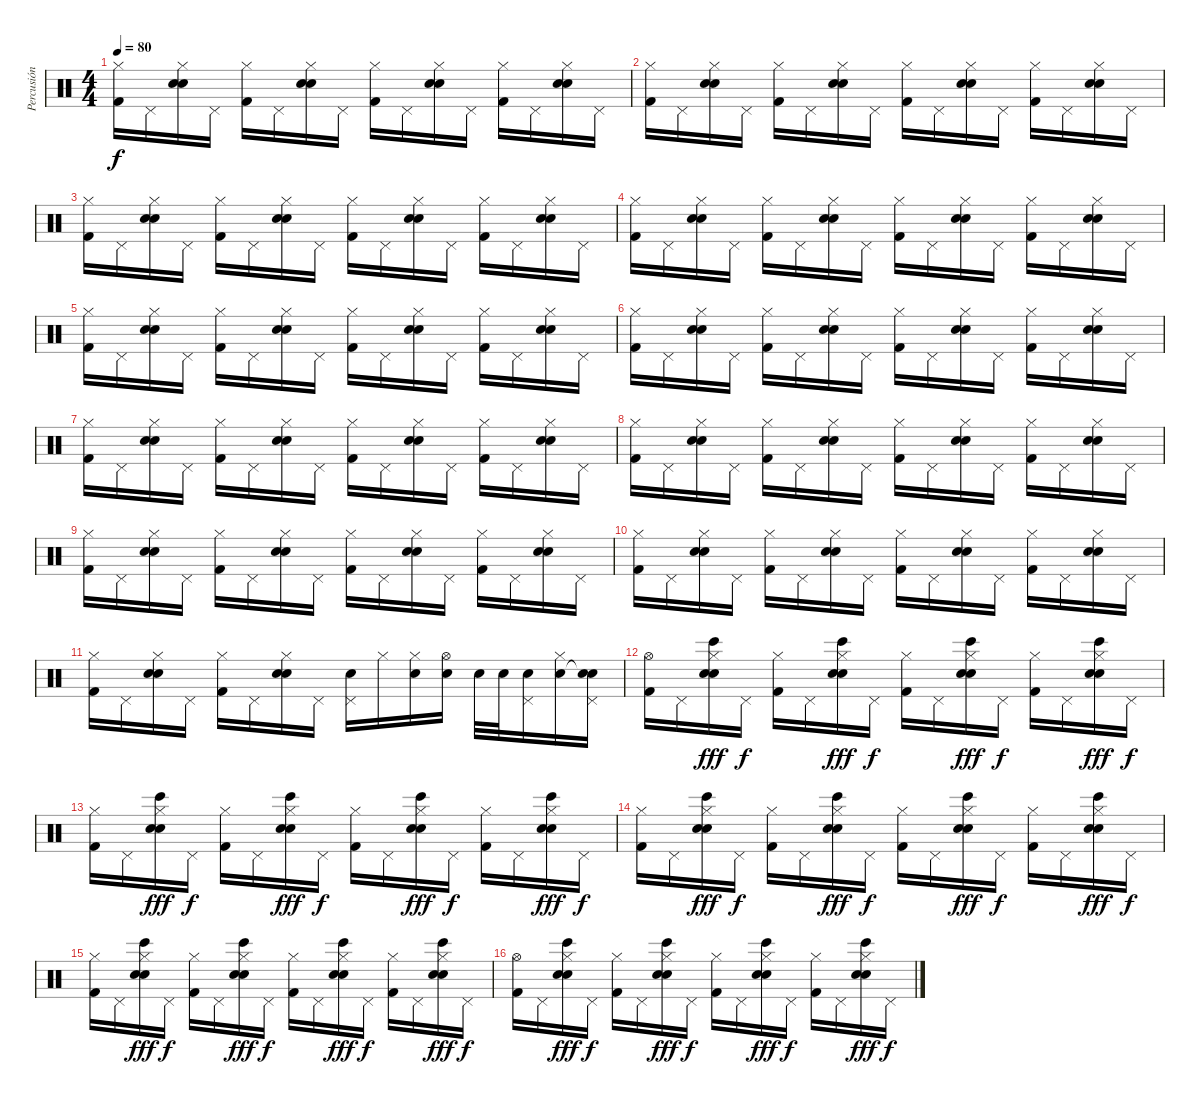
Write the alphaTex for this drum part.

\track ("Percusión" "Percusión") {instrument percussion}
\staff {score}
\articulation defaults
\ts (4 4)
\tempo 80
\clef neutral
\ks c
("Hi-Hat (closed)" "Kick (hit) 2").16{dy f} "Pedal Hi-Hat (hit)".16 ("Hi-Hat (closed)" "Hand Clap (hit)" "Electric Snare (hit)").16 "Pedal Hi-Hat (hit)".16 ("Hi-Hat (closed)" "Kick (hit) 2").16 "Pedal Hi-Hat (hit)".16 ("Hi-Hat (closed)" "Hand Clap (hit)" "Electric Snare (hit)").16 "Pedal Hi-Hat (hit)".16 ("Hi-Hat (closed)" "Kick (hit) 2").16 "Pedal Hi-Hat (hit)".16 ("Hi-Hat (closed)" "Hand Clap (hit)" "Electric Snare (hit)").16 "Pedal Hi-Hat (hit)".16 ("Hi-Hat (closed)" "Kick (hit) 2").16 "Pedal Hi-Hat (hit)".16 ("Hi-Hat (closed)" "Hand Clap (hit)" "Electric Snare (hit)").16 "Pedal Hi-Hat (hit)".16 |
("Hi-Hat (closed)" "Kick (hit) 2").16 "Pedal Hi-Hat (hit)".16 ("Hi-Hat (closed)" "Hand Clap (hit)" "Electric Snare (hit)").16 "Pedal Hi-Hat (hit)".16 ("Hi-Hat (closed)" "Kick (hit) 2").16 "Pedal Hi-Hat (hit)".16 ("Hi-Hat (closed)" "Hand Clap (hit)" "Electric Snare (hit)").16 "Pedal Hi-Hat (hit)".16 ("Hi-Hat (closed)" "Kick (hit) 2").16 "Pedal Hi-Hat (hit)".16 ("Hi-Hat (closed)" "Hand Clap (hit)" "Electric Snare (hit)").16 "Pedal Hi-Hat (hit)".16 ("Hi-Hat (closed)" "Kick (hit) 2").16 "Pedal Hi-Hat (hit)".16 ("Hi-Hat (closed)" "Hand Clap (hit)" "Electric Snare (hit)").16 "Pedal Hi-Hat (hit)".16 |
("Hi-Hat (closed)" "Kick (hit) 2").16 "Pedal Hi-Hat (hit)".16 ("Hi-Hat (closed)" "Hand Clap (hit)" "Electric Snare (hit)").16 "Pedal Hi-Hat (hit)".16 ("Hi-Hat (closed)" "Kick (hit) 2").16 "Pedal Hi-Hat (hit)".16 ("Hi-Hat (closed)" "Hand Clap (hit)" "Electric Snare (hit)").16 "Pedal Hi-Hat (hit)".16 ("Hi-Hat (closed)" "Kick (hit) 2").16 "Pedal Hi-Hat (hit)".16 ("Hi-Hat (closed)" "Hand Clap (hit)" "Electric Snare (hit)").16 "Pedal Hi-Hat (hit)".16 ("Hi-Hat (closed)" "Kick (hit) 2").16 "Pedal Hi-Hat (hit)".16 ("Hi-Hat (closed)" "Hand Clap (hit)" "Electric Snare (hit)").16 "Pedal Hi-Hat (hit)".16 |
("Hi-Hat (closed)" "Kick (hit) 2").16 "Pedal Hi-Hat (hit)".16 ("Hi-Hat (closed)" "Hand Clap (hit)" "Electric Snare (hit)").16 "Pedal Hi-Hat (hit)".16 ("Hi-Hat (closed)" "Kick (hit) 2").16 "Pedal Hi-Hat (hit)".16 ("Hi-Hat (closed)" "Hand Clap (hit)" "Electric Snare (hit)").16 "Pedal Hi-Hat (hit)".16 ("Hi-Hat (closed)" "Kick (hit) 2").16 "Pedal Hi-Hat (hit)".16 ("Hi-Hat (closed)" "Hand Clap (hit)" "Electric Snare (hit)").16 "Pedal Hi-Hat (hit)".16 ("Hi-Hat (closed)" "Kick (hit) 2").16 "Pedal Hi-Hat (hit)".16 ("Hi-Hat (closed)" "Hand Clap (hit)" "Electric Snare (hit)").16 "Pedal Hi-Hat (hit)".16 |
("Hi-Hat (closed)" "Kick (hit) 2").16 "Pedal Hi-Hat (hit)".16 ("Hi-Hat (closed)" "Hand Clap (hit)" "Electric Snare (hit)").16 "Pedal Hi-Hat (hit)".16 ("Hi-Hat (closed)" "Kick (hit) 2").16 "Pedal Hi-Hat (hit)".16 ("Hi-Hat (closed)" "Hand Clap (hit)" "Electric Snare (hit)").16 "Pedal Hi-Hat (hit)".16 ("Hi-Hat (closed)" "Kick (hit) 2").16 "Pedal Hi-Hat (hit)".16 ("Hi-Hat (closed)" "Hand Clap (hit)" "Electric Snare (hit)").16 "Pedal Hi-Hat (hit)".16 ("Hi-Hat (closed)" "Kick (hit) 2").16 "Pedal Hi-Hat (hit)".16 ("Hi-Hat (closed)" "Hand Clap (hit)" "Electric Snare (hit)").16 "Pedal Hi-Hat (hit)".16 |
("Hi-Hat (closed)" "Kick (hit) 2").16 "Pedal Hi-Hat (hit)".16 ("Hi-Hat (closed)" "Hand Clap (hit)" "Electric Snare (hit)").16 "Pedal Hi-Hat (hit)".16 ("Hi-Hat (closed)" "Kick (hit) 2").16 "Pedal Hi-Hat (hit)".16 ("Hi-Hat (closed)" "Hand Clap (hit)" "Electric Snare (hit)").16 "Pedal Hi-Hat (hit)".16 ("Hi-Hat (closed)" "Kick (hit) 2").16 "Pedal Hi-Hat (hit)".16 ("Hi-Hat (closed)" "Hand Clap (hit)" "Electric Snare (hit)").16 "Pedal Hi-Hat (hit)".16 ("Hi-Hat (closed)" "Kick (hit) 2").16 "Pedal Hi-Hat (hit)".16 ("Hi-Hat (closed)" "Hand Clap (hit)" "Electric Snare (hit)").16 "Pedal Hi-Hat (hit)".16 |
("Hi-Hat (closed)" "Kick (hit) 2").16 "Pedal Hi-Hat (hit)".16 ("Hi-Hat (closed)" "Hand Clap (hit)" "Electric Snare (hit)").16 "Pedal Hi-Hat (hit)".16 ("Hi-Hat (closed)" "Kick (hit) 2").16 "Pedal Hi-Hat (hit)".16 ("Hi-Hat (closed)" "Hand Clap (hit)" "Electric Snare (hit)").16 "Pedal Hi-Hat (hit)".16 ("Hi-Hat (closed)" "Kick (hit) 2").16 "Pedal Hi-Hat (hit)".16 ("Hi-Hat (closed)" "Hand Clap (hit)" "Electric Snare (hit)").16 "Pedal Hi-Hat (hit)".16 ("Hi-Hat (closed)" "Kick (hit) 2").16 "Pedal Hi-Hat (hit)".16 ("Hi-Hat (closed)" "Hand Clap (hit)" "Electric Snare (hit)").16 "Pedal Hi-Hat (hit)".16 |
("Hi-Hat (closed)" "Kick (hit) 2").16 "Pedal Hi-Hat (hit)".16 ("Hi-Hat (closed)" "Hand Clap (hit)" "Electric Snare (hit)").16 "Pedal Hi-Hat (hit)".16 ("Hi-Hat (closed)" "Kick (hit) 2").16 "Pedal Hi-Hat (hit)".16 ("Hi-Hat (closed)" "Hand Clap (hit)" "Electric Snare (hit)").16 "Pedal Hi-Hat (hit)".16 ("Hi-Hat (closed)" "Kick (hit) 2").16 "Pedal Hi-Hat (hit)".16 ("Hi-Hat (closed)" "Hand Clap (hit)" "Electric Snare (hit)").16 "Pedal Hi-Hat (hit)".16 ("Hi-Hat (closed)" "Kick (hit) 2").16 "Pedal Hi-Hat (hit)".16 ("Hi-Hat (closed)" "Hand Clap (hit)" "Electric Snare (hit)").16 "Pedal Hi-Hat (hit)".16 |
("Hi-Hat (closed)" "Kick (hit) 2").16 "Pedal Hi-Hat (hit)".16 ("Hi-Hat (closed)" "Hand Clap (hit)" "Electric Snare (hit)").16 "Pedal Hi-Hat (hit)".16 ("Hi-Hat (closed)" "Kick (hit) 2").16 "Pedal Hi-Hat (hit)".16 ("Hi-Hat (closed)" "Hand Clap (hit)" "Electric Snare (hit)").16 "Pedal Hi-Hat (hit)".16 ("Hi-Hat (closed)" "Kick (hit) 2").16 "Pedal Hi-Hat (hit)".16 ("Hi-Hat (closed)" "Hand Clap (hit)" "Electric Snare (hit)").16 "Pedal Hi-Hat (hit)".16 ("Hi-Hat (closed)" "Kick (hit) 2").16 "Pedal Hi-Hat (hit)".16 ("Hi-Hat (closed)" "Hand Clap (hit)" "Electric Snare (hit)").16 "Pedal Hi-Hat (hit)".16 |
("Hi-Hat (closed)" "Kick (hit) 2").16 "Pedal Hi-Hat (hit)".16 ("Hi-Hat (closed)" "Hand Clap (hit)" "Electric Snare (hit)").16 "Pedal Hi-Hat (hit)".16 ("Hi-Hat (closed)" "Kick (hit) 2").16 "Pedal Hi-Hat (hit)".16 ("Hi-Hat (closed)" "Hand Clap (hit)" "Electric Snare (hit)").16 "Pedal Hi-Hat (hit)".16 ("Hi-Hat (closed)" "Kick (hit) 2").16 "Pedal Hi-Hat (hit)".16 ("Hi-Hat (closed)" "Hand Clap (hit)" "Electric Snare (hit)").16 "Pedal Hi-Hat (hit)".16 ("Hi-Hat (closed)" "Kick (hit) 2").16 "Pedal Hi-Hat (hit)".16 ("Hi-Hat (closed)" "Hand Clap (hit)" "Electric Snare (hit)").16 "Pedal Hi-Hat (hit)".16 |
("Hi-Hat (closed)" "Kick (hit) 2").16 "Pedal Hi-Hat (hit)".16 ("Hi-Hat (closed)" "Hand Clap (hit)" "Electric Snare (hit)").16 "Pedal Hi-Hat (hit)".16 ("Hi-Hat (closed)" "Kick (hit) 2").16 "Pedal Hi-Hat (hit)".16 ("Hi-Hat (closed)" "Hand Clap (hit)" "Electric Snare (hit)").16 "Pedal Hi-Hat (hit)".16 ("Pedal Hi-Hat (hit)" "Electric Snare (hit)").16 "Hi-Hat (closed)".16 ("Hi-Hat (closed)" "Electric Snare (hit)").16 ("Hi-Hat (open)" "Electric Snare (hit)").16 "Electric Snare (hit)".32 "Electric Snare (hit)".32 ("Pedal Hi-Hat (hit)" "Electric Snare (hit)").16 ("Hi-Hat (closed)" "Electric Snare (hit)").16 ("Pedal Hi-Hat (hit)" "Snare (hit)"{t} "Electric Snare (hit)").16 |
("Hi-Hat (open)" "Kick (hit) 2").16 "Pedal Hi-Hat (hit)".16 ("Hi-Hat (closed)" "Bongo High (hit)" "Hand Clap (hit)" "Electric Snare (hit)").16{dy fff} "Pedal Hi-Hat (hit)".16{dy f} ("Hi-Hat (closed)" "Kick (hit) 2").16 "Pedal Hi-Hat (hit)".16 ("Hi-Hat (closed)" "Bongo High (hit)" "Hand Clap (hit)" "Electric Snare (hit)").16{dy fff} "Pedal Hi-Hat (hit)".16{dy f} ("Hi-Hat (closed)" "Kick (hit) 2").16 "Pedal Hi-Hat (hit)".16 ("Hi-Hat (closed)" "Bongo High (hit)" "Hand Clap (hit)" "Electric Snare (hit)").16{dy fff} "Pedal Hi-Hat (hit)".16{dy f} ("Hi-Hat (closed)" "Kick (hit) 2").16 "Pedal Hi-Hat (hit)".16 ("Hi-Hat (closed)" "Bongo High (hit)" "Hand Clap (hit)" "Electric Snare (hit)").16{dy fff} "Pedal Hi-Hat (hit)".16{dy f} |
("Hi-Hat (closed)" "Kick (hit) 2").16 "Pedal Hi-Hat (hit)".16 ("Hi-Hat (closed)" "Bongo High (hit)" "Hand Clap (hit)" "Electric Snare (hit)").16{dy fff} "Pedal Hi-Hat (hit)".16{dy f} ("Hi-Hat (closed)" "Kick (hit) 2").16 "Pedal Hi-Hat (hit)".16 ("Hi-Hat (closed)" "Bongo High (hit)" "Hand Clap (hit)" "Electric Snare (hit)").16{dy fff} "Pedal Hi-Hat (hit)".16{dy f} ("Hi-Hat (closed)" "Kick (hit) 2").16 "Pedal Hi-Hat (hit)".16 ("Hi-Hat (closed)" "Bongo High (hit)" "Hand Clap (hit)" "Electric Snare (hit)").16{dy fff} "Pedal Hi-Hat (hit)".16{dy f} ("Hi-Hat (closed)" "Kick (hit) 2").16 "Pedal Hi-Hat (hit)".16 ("Hi-Hat (closed)" "Bongo High (hit)" "Hand Clap (hit)" "Electric Snare (hit)").16{dy fff} "Pedal Hi-Hat (hit)".16{dy f} |
("Hi-Hat (closed)" "Kick (hit) 2").16 "Pedal Hi-Hat (hit)".16 ("Hi-Hat (closed)" "Bongo High (hit)" "Hand Clap (hit)" "Electric Snare (hit)").16{dy fff} "Pedal Hi-Hat (hit)".16{dy f} ("Hi-Hat (closed)" "Kick (hit) 2").16 "Pedal Hi-Hat (hit)".16 ("Hi-Hat (closed)" "Bongo High (hit)" "Hand Clap (hit)" "Electric Snare (hit)").16{dy fff} "Pedal Hi-Hat (hit)".16{dy f} ("Hi-Hat (closed)" "Kick (hit) 2").16 "Pedal Hi-Hat (hit)".16 ("Hi-Hat (closed)" "Bongo High (hit)" "Hand Clap (hit)" "Electric Snare (hit)").16{dy fff} "Pedal Hi-Hat (hit)".16{dy f} ("Hi-Hat (closed)" "Kick (hit) 2").16 "Pedal Hi-Hat (hit)".16 ("Hi-Hat (closed)" "Bongo High (hit)" "Hand Clap (hit)" "Electric Snare (hit)").16{dy fff} "Pedal Hi-Hat (hit)".16{dy f} |
("Hi-Hat (closed)" "Kick (hit) 2").16 "Pedal Hi-Hat (hit)".16 ("Hi-Hat (closed)" "Bongo High (hit)" "Hand Clap (hit)" "Electric Snare (hit)").16{dy fff} "Pedal Hi-Hat (hit)".16{dy f} ("Hi-Hat (closed)" "Kick (hit) 2").16 "Pedal Hi-Hat (hit)".16 ("Hi-Hat (closed)" "Bongo High (hit)" "Hand Clap (hit)" "Electric Snare (hit)").16{dy fff} "Pedal Hi-Hat (hit)".16{dy f} ("Hi-Hat (closed)" "Kick (hit) 2").16 "Pedal Hi-Hat (hit)".16 ("Hi-Hat (closed)" "Bongo High (hit)" "Hand Clap (hit)" "Electric Snare (hit)").16{dy fff} "Pedal Hi-Hat (hit)".16{dy f} ("Hi-Hat (closed)" "Kick (hit) 2").16 "Pedal Hi-Hat (hit)".16 ("Hi-Hat (closed)" "Bongo High (hit)" "Hand Clap (hit)" "Electric Snare (hit)").16{dy fff} "Pedal Hi-Hat (hit)".16{dy f} |
("Hi-Hat (open)" "Kick (hit) 2").16 "Pedal Hi-Hat (hit)".16 ("Hi-Hat (closed)" "Bongo High (hit)" "Hand Clap (hit)" "Electric Snare (hit)").16{dy fff} "Pedal Hi-Hat (hit)".16{dy f} ("Hi-Hat (closed)" "Kick (hit) 2").16 "Pedal Hi-Hat (hit)".16 ("Hi-Hat (closed)" "Bongo High (hit)" "Hand Clap (hit)" "Electric Snare (hit)").16{dy fff} "Pedal Hi-Hat (hit)".16{dy f} ("Hi-Hat (closed)" "Kick (hit) 2").16 "Pedal Hi-Hat (hit)".16 ("Hi-Hat (closed)" "Bongo High (hit)" "Hand Clap (hit)" "Electric Snare (hit)").16{dy fff} "Pedal Hi-Hat (hit)".16{dy f} ("Hi-Hat (closed)" "Kick (hit) 2").16 "Pedal Hi-Hat (hit)".16 ("Hi-Hat (closed)" "Bongo High (hit)" "Hand Clap (hit)" "Electric Snare (hit)").16{dy fff} "Pedal Hi-Hat (hit)".16{dy f}
